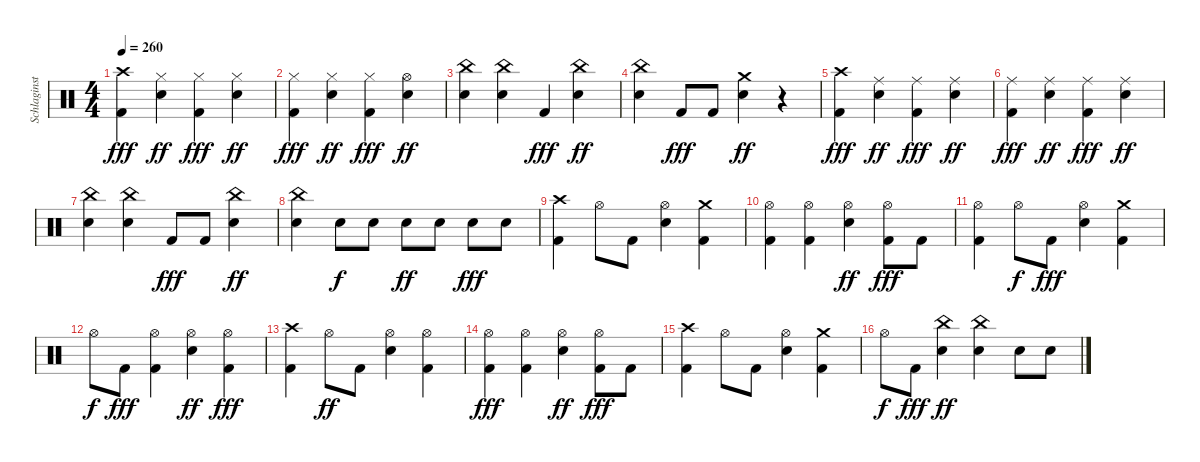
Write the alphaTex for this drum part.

\track ("Schlaginstrumente - Auswahl" "Schlaginst") {instrument percussion}
\staff {score}
\articulation defaults
\ts (4 4)
\tempo 260
\clef neutral
\ks c
("Crash high (hit)" "Kick (hit) 2").4{dy fff} ("Hi-Hat (closed)" "Snare (hit) 2").4{dy ff} ("Hi-Hat (closed)" "Kick (hit) 2").4{dy fff} ("Hi-Hat (closed)" "Snare (hit) 2").4{dy ff} |
("Hi-Hat (closed)" "Kick (hit) 2").4{dy fff} ("Hi-Hat (closed)" "Snare (hit) 2").4{dy ff} ("Hi-Hat (closed)" "Kick (hit) 2").4{dy fff} ("Hi-Hat (open)" "Snare (hit) 2").4{dy ff} |
("China (hit)" "Snare (hit) 2").4 ("China (hit)" "Snare (hit) 2").4 "Kick (hit) 2".4{dy fff} ("China (hit)" "Snare (hit) 2").4{dy ff} |
("China (hit)" "Snare (hit) 2").4 "Kick (hit) 2".8{dy fff} "Kick (hit) 2".8 ("Crash medium (hit)" "Snare (hit) 2").4{dy ff} r.4 |
("Crash high (hit)" "Kick (hit) 2").4{dy fff} ("Ride (middle)" "Snare (hit) 2").4{dy ff} ("Ride (middle)" "Kick (hit) 2").4{dy fff} ("Ride (middle)" "Snare (hit) 2").4{dy ff} |
("Ride (middle)" "Kick (hit) 2").4{dy fff} ("Ride (middle)" "Snare (hit) 2").4{dy ff} ("Ride (middle)" "Kick (hit) 2").4{dy fff} ("Ride (middle)" "Snare (hit) 2").4{dy ff} |
("China (hit)" "Snare (hit) 2").4 ("China (hit)" "Snare (hit) 2").4 "Kick (hit) 2".8{dy fff} "Kick (hit) 2".8 ("China (hit)" "Snare (hit) 2").4{dy ff} |
("China (hit)" "Snare (hit) 2").4 "Snare (hit) 2".8{dy f} "Snare (hit) 2".8 "Snare (hit) 2".8{dy ff} "Snare (hit) 2".8 "Snare (hit) 2".8{dy fff} "Snare (hit) 2".8 |
("Crash high (hit)" "Kick (hit) 2").4 "Hi-Hat (open)".8 "Kick (hit) 2".8 ("Hi-Hat (open)" "Snare (hit) 2").4 ("Crash medium (hit)" "Kick (hit) 2").4 |
("Hi-Hat (open)" "Kick (hit) 2").4 ("Hi-Hat (open)" "Kick (hit) 2").4 ("Hi-Hat (open)" "Snare (hit) 2").4{dy ff} ("Hi-Hat (open)" "Kick (hit) 2").8{dy fff} "Kick (hit) 2".8 |
("Hi-Hat (open)" "Kick (hit) 2").4 "Hi-Hat (open)".8{dy f} "Kick (hit) 2".8{dy fff} ("Hi-Hat (open)" "Snare (hit) 2").4 ("Crash medium (hit)" "Kick (hit) 2").4 |
"Hi-Hat (open)".8{dy f} "Kick (hit) 2".8{dy fff} ("Hi-Hat (open)" "Kick (hit) 2").4 ("Hi-Hat (open)" "Snare (hit) 2").4{dy ff} ("Hi-Hat (open)" "Kick (hit) 2").4{dy fff} |
("Crash high (hit)" "Kick (hit) 2").4 "Hi-Hat (open)".8{dy ff} "Kick (hit) 2".8 ("Hi-Hat (open)" "Snare (hit) 2").4 ("Hi-Hat (open)" "Kick (hit) 2").4 |
("Hi-Hat (open)" "Kick (hit) 2").4{dy fff} ("Hi-Hat (open)" "Kick (hit) 2").4 ("Hi-Hat (open)" "Snare (hit) 2").4{dy ff} ("Hi-Hat (open)" "Kick (hit) 2").8{dy fff} "Kick (hit) 2".8 |
("Crash high (hit)" "Kick (hit) 2").4 "Hi-Hat (open)".8 "Kick (hit) 2".8 ("Hi-Hat (open)" "Snare (hit) 2").4 ("Crash medium (hit)" "Kick (hit) 2").4 |
"Hi-Hat (open)".8{dy f} "Kick (hit) 2".8{dy fff} ("China (hit)" "Snare (hit) 2").4{dy ff} ("China (hit)" "Snare (hit) 2").4 "Snare (hit) 2".8 "Snare (hit) 2".8
